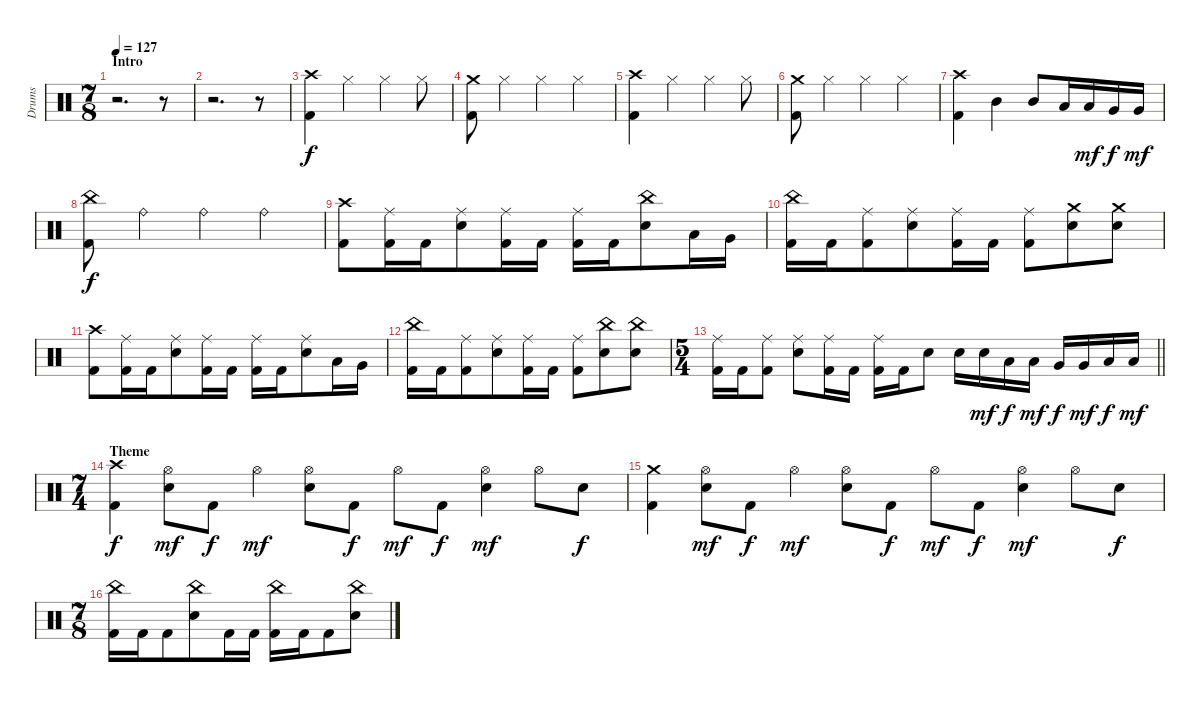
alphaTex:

\track ("Drums" "Drums") {instrument percussion}
\staff {score}
\articulation defaults
\ts (7 8)
\section ("" "Intro")
\tempo 127
\clef neutral
\ks c
r.2{d dy f} r.8 |
r.2{d} r.8 |
("Kick (hit) 2" "Crash high (hit)").4 "Hi-Hat (closed)".4 "Hi-Hat (closed)".4 "Hi-Hat (closed)".8 |
("Kick (hit) 2" "Crash medium (hit)").8 "Hi-Hat (closed)".4 "Hi-Hat (closed)".4 "Hi-Hat (closed)".4 |
("Kick (hit) 2" "Crash high (hit)").4 "Hi-Hat (closed)".4 "Hi-Hat (closed)".4 "Hi-Hat (closed)".8 |
("Kick (hit) 2" "Crash medium (hit)").8 "Hi-Hat (closed)".4 "Hi-Hat (closed)".4 "Hi-Hat (closed)".4 |
("Kick (hit) 2" "Crash high (hit)").4 "Mid Tom (hit)".4 "Mid Tom (hit)".8 "Low Tom (hit)".16 "Low Tom (hit)".16{dy mf} "Very Low Tom (hit)".16{dy f} "Very Low Tom (hit)".16{dy mf} |
("Kick (hit) 2" "China (hit)").8{dy f} "Ride (bell)".4 "Ride (bell)".4 "Ride (bell)".4 |
("Kick (hit) 2" "Crash high (hit)").8 ("Kick (hit) 2" "Ride (middle)").16 "Kick (hit) 2".16 ("Ride (middle)" "Electric Snare (hit)").8 ("Kick (hit) 2" "Ride (middle)").16 "Kick (hit) 2".16 ("Kick (hit) 2" "Ride (middle)").16 "Kick (hit) 2".16 ("China (hit)" "Electric Snare (hit)").8 "Low Tom (hit)".16 "Very Low Tom (hit)".16 |
("Kick (hit) 2" "China (hit)").16 "Kick (hit) 2".16 ("Kick (hit) 2" "Ride (middle)").8 ("Ride (middle)" "Electric Snare (hit)").8 ("Kick (hit) 2" "Ride (middle)").16 "Kick (hit) 2".16 ("Kick (hit) 2" "Ride (middle)").8 ("Crash medium (hit)" "Electric Snare (hit)").8 ("Crash medium (hit)" "Electric Snare (hit)").8 |
("Kick (hit) 2" "Crash high (hit)").8 ("Kick (hit) 2" "Ride (middle)").16 "Kick (hit) 2".16 ("Ride (middle)" "Electric Snare (hit)").8 ("Kick (hit) 2" "Ride (middle)").16 "Kick (hit) 2".16 ("Kick (hit) 2" "Ride (middle)").16 "Kick (hit) 2".16 ("Ride (middle)" "Electric Snare (hit)").8 "Low Tom (hit)".16 "Very Low Tom (hit)".16 |
("Kick (hit) 2" "China (hit)").16 "Kick (hit) 2".16 ("Kick (hit) 2" "Ride (middle)").8 ("Ride (middle)" "Electric Snare (hit)").8 ("Kick (hit) 2" "Ride (middle)").16 "Kick (hit) 2".16 ("Kick (hit) 2" "Ride (middle)").8 ("China (hit)" "Electric Snare (hit)").8 ("China (hit)" "Electric Snare (hit)").8 |
\ts (5 4)
\barLineRight lightlight
("Kick (hit) 2" "Ride (middle)").16 "Kick (hit) 2".16 ("Kick (hit) 2" "Ride (middle)").8 ("Ride (middle)" "Electric Snare (hit)").8 ("Kick (hit) 2" "Ride (middle)").16 "Kick (hit) 2".16 ("Kick (hit) 2" "Ride (middle)").16 "Kick (hit) 2".16 "Electric Snare (hit)".8 "Electric Snare (hit)".16 "Electric Snare (hit)".16{dy mf} "Low Tom (hit)".16{dy f} "Low Tom (hit)".16{dy mf} "Very Low Tom (hit)".16{dy f} "Very Low Tom (hit)".16{dy mf} "Low Floor Tom (hit)".16{dy f} "Low Floor Tom (hit)".16{dy mf} |
\ts (7 4)
\section ("" "Theme")
("Kick (hit) 2" "Crash high (hit)").4{dy f} ("Hi-Hat (open)" "Electric Snare (hit)").8{dy mf} "Kick (hit) 2".8{dy f} "Hi-Hat (open)".4{dy mf} ("Hi-Hat (open)" "Electric Snare (hit)").8 "Kick (hit) 2".8{dy f} "Hi-Hat (open)".8{dy mf} "Kick (hit) 2".8{dy f} ("Hi-Hat (open)" "Electric Snare (hit)").4{dy mf} "Hi-Hat (open)".8 "Electric Snare (hit)".8{dy f} |
("Kick (hit) 2" "Crash medium (hit)").4 ("Hi-Hat (open)" "Electric Snare (hit)").8{dy mf} "Kick (hit) 2".8{dy f} "Hi-Hat (open)".4{dy mf} ("Hi-Hat (open)" "Electric Snare (hit)").8 "Kick (hit) 2".8{dy f} "Hi-Hat (open)".8{dy mf} "Kick (hit) 2".8{dy f} ("Hi-Hat (open)" "Electric Snare (hit)").4{dy mf} "Hi-Hat (open)".8 "Electric Snare (hit)".8{dy f} |
\ts (7 8)
("Kick (hit) 2" "China (hit)").16 "Kick (hit) 2".16 "Kick (hit) 2".8 ("China (hit)" "Electric Snare (hit)").8 "Kick (hit) 2".16 "Kick (hit) 2".16 ("Kick (hit) 2" "China (hit)").16 "Kick (hit) 2".16 "Kick (hit) 2".8 ("China (hit)" "Electric Snare (hit)").8
